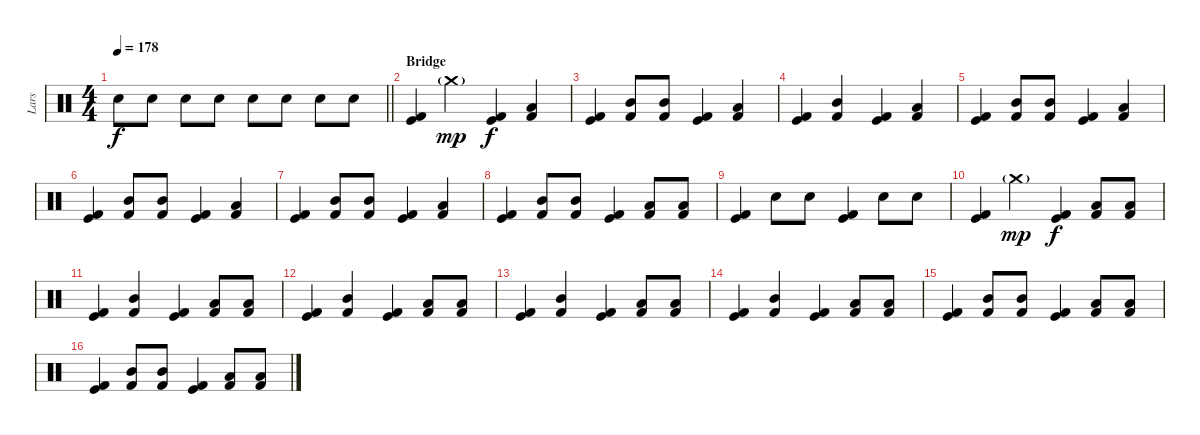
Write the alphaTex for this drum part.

\track ("Lars" "Lars") {instrument percussion}
\staff {score}
\articulation defaults
\ts (4 4)
\tempo 178
\clef neutral
\barLineRight lightlight
\ks c "Electric Snare (hit)".8{dy f} "Electric Snare (hit)".8 "Electric Snare (hit)".8 "Electric Snare (hit)".8 "Electric Snare (hit)".8 "Electric Snare (hit)".8 "Electric Snare (hit)".8 "Electric Snare (hit)".8
|
\section ("" "Bridge")
("Kick (hit)" "Kick (hit) 2").4 "Crash medium (hit)"{g}.4{dy mp} ("Kick (hit)" "Kick (hit) 2").4{dy f} ("Kick (hit) 2" "Low Tom (hit)").4 |
("Kick (hit)" "Kick (hit) 2").4 ("Kick (hit) 2" "Mid Tom (hit)").8 ("Kick (hit) 2" "Mid Tom (hit)").8 ("Kick (hit)" "Kick (hit) 2").4 ("Kick (hit) 2" "Low Tom (hit)").4 |
("Kick (hit)" "Kick (hit) 2").4 ("Kick (hit) 2" "Mid Tom (hit)").4 ("Kick (hit)" "Kick (hit) 2").4 ("Kick (hit) 2" "Low Tom (hit)").4 |
("Kick (hit)" "Kick (hit) 2").4 ("Kick (hit) 2" "Mid Tom (hit)").8 ("Kick (hit) 2" "Mid Tom (hit)").8 ("Kick (hit)" "Kick (hit) 2").4 ("Kick (hit) 2" "Low Tom (hit)").4 |
("Kick (hit)" "Kick (hit) 2").4 ("Kick (hit) 2" "Mid Tom (hit)").8 ("Kick (hit) 2" "Mid Tom (hit)").8 ("Kick (hit)" "Kick (hit) 2").4 ("Kick (hit) 2" "Low Tom (hit)").4 |
("Kick (hit)" "Kick (hit) 2").4 ("Kick (hit) 2" "Mid Tom (hit)").8 ("Kick (hit) 2" "Mid Tom (hit)").8 ("Kick (hit)" "Kick (hit) 2").4 ("Kick (hit) 2" "Low Tom (hit)").4 |
("Kick (hit)" "Kick (hit) 2").4 ("Kick (hit) 2" "Mid Tom (hit)").8 ("Kick (hit) 2" "Mid Tom (hit)").8 ("Kick (hit)" "Kick (hit) 2").4 ("Kick (hit) 2" "Low Tom (hit)").8 ("Kick (hit) 2" "Low Tom (hit)").8 |
("Kick (hit)" "Kick (hit) 2").4 "Electric Snare (hit)".8 "Electric Snare (hit)".8 ("Kick (hit)" "Kick (hit) 2").4 "Electric Snare (hit)".8 "Electric Snare (hit)".8 |
("Kick (hit)" "Kick (hit) 2").4 "Crash medium (hit)"{g}.4{dy mp} ("Kick (hit)" "Kick (hit) 2").4{dy f} ("Kick (hit) 2" "Low Tom (hit)").8 ("Kick (hit) 2" "Low Tom (hit)").8 |
("Kick (hit)" "Kick (hit) 2").4 ("Kick (hit) 2" "Mid Tom (hit)").4 ("Kick (hit)" "Kick (hit) 2").4 ("Kick (hit) 2" "Low Tom (hit)").8 ("Kick (hit) 2" "Low Tom (hit)").8 |
("Kick (hit)" "Kick (hit) 2").4 ("Kick (hit) 2" "Mid Tom (hit)").4 ("Kick (hit)" "Kick (hit) 2").4 ("Kick (hit) 2" "Low Tom (hit)").8 ("Kick (hit) 2" "Low Tom (hit)").8 |
("Kick (hit)" "Kick (hit) 2").4 ("Kick (hit) 2" "Mid Tom (hit)").4 ("Kick (hit)" "Kick (hit) 2").4 ("Kick (hit) 2" "Low Tom (hit)").8 ("Kick (hit) 2" "Low Tom (hit)").8 |
("Kick (hit)" "Kick (hit) 2").4 ("Kick (hit) 2" "Mid Tom (hit)").4 ("Kick (hit)" "Kick (hit) 2").4 ("Kick (hit) 2" "Low Tom (hit)").8 ("Kick (hit) 2" "Low Tom (hit)").8 |
("Kick (hit)" "Kick (hit) 2").4 ("Kick (hit) 2" "Mid Tom (hit)").8 ("Kick (hit) 2" "Mid Tom (hit)").8 ("Kick (hit)" "Kick (hit) 2").4 ("Kick (hit) 2" "Low Tom (hit)").8 ("Kick (hit) 2" "Low Tom (hit)").8 |
("Kick (hit)" "Kick (hit) 2").4 ("Kick (hit) 2" "Mid Tom (hit)").8 ("Kick (hit) 2" "Mid Tom (hit)").8 ("Kick (hit)" "Kick (hit) 2").4 ("Kick (hit) 2" "Low Tom (hit)").8 ("Kick (hit) 2" "Low Tom (hit)").8
